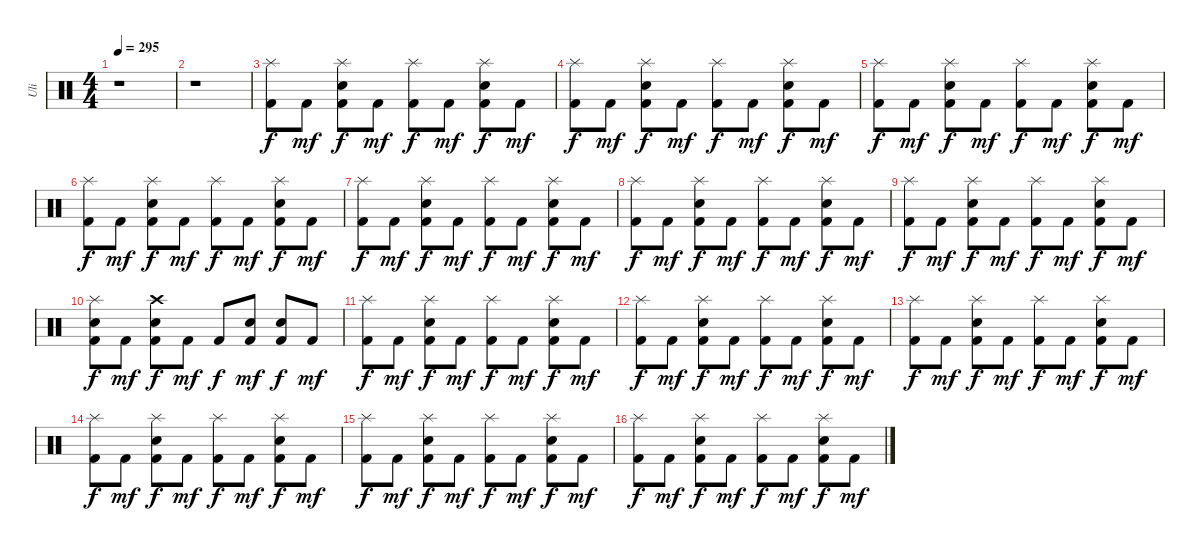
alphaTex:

\track ("Uli" "Uli") {instrument percussion}
\staff {score}
\articulation defaults
\ts (4 4)
\tempo 295
\clef neutral
\ks c
r.1{dy f} |
r.1 |
("Splash (hit)" "Kick (hit) 2").8 "Kick (hit) 2".8{dy mf volume 16} ("Splash (hit)" "Electric Snare (hit)" "Kick (hit) 2").8{dy f} "Kick (hit) 2".8{dy mf} ("Splash (hit)" "Kick (hit) 2").8{dy f} "Kick (hit) 2".8{dy mf} ("Splash (hit)" "Electric Snare (hit)" "Kick (hit) 2").8{dy f} "Kick (hit) 2".8{dy mf} |
("Splash (hit)" "Kick (hit) 2").8{dy f} "Kick (hit) 2".8{dy mf volume 16} ("Splash (hit)" "Electric Snare (hit)" "Kick (hit) 2").8{dy f} "Kick (hit) 2".8{dy mf} ("Splash (hit)" "Kick (hit) 2").8{dy f} "Kick (hit) 2".8{dy mf} ("Splash (hit)" "Electric Snare (hit)" "Kick (hit) 2").8{dy f} "Kick (hit) 2".8{dy mf} |
("Splash (hit)" "Kick (hit) 2").8{dy f} "Kick (hit) 2".8{dy mf volume 16} ("Splash (hit)" "Electric Snare (hit)" "Kick (hit) 2").8{dy f} "Kick (hit) 2".8{dy mf} ("Splash (hit)" "Kick (hit) 2").8{dy f} "Kick (hit) 2".8{dy mf} ("Splash (hit)" "Electric Snare (hit)" "Kick (hit) 2").8{dy f} "Kick (hit) 2".8{dy mf} |
("Splash (hit)" "Kick (hit) 2").8{dy f} "Kick (hit) 2".8{dy mf volume 16} ("Splash (hit)" "Electric Snare (hit)" "Kick (hit) 2").8{dy f} "Kick (hit) 2".8{dy mf} ("Splash (hit)" "Kick (hit) 2").8{dy f} "Kick (hit) 2".8{dy mf} ("Splash (hit)" "Electric Snare (hit)" "Kick (hit) 2").8{dy f} "Kick (hit) 2".8{dy mf} |
("Splash (hit)" "Kick (hit) 2").8{dy f} "Kick (hit) 2".8{dy mf volume 16} ("Splash (hit)" "Electric Snare (hit)" "Kick (hit) 2").8{dy f} "Kick (hit) 2".8{dy mf} ("Splash (hit)" "Kick (hit) 2").8{dy f} "Kick (hit) 2".8{dy mf} ("Splash (hit)" "Electric Snare (hit)" "Kick (hit) 2").8{dy f} "Kick (hit) 2".8{dy mf} |
("Splash (hit)" "Kick (hit) 2").8{dy f} "Kick (hit) 2".8{dy mf volume 16} ("Splash (hit)" "Electric Snare (hit)" "Kick (hit) 2").8{dy f} "Kick (hit) 2".8{dy mf} ("Splash (hit)" "Kick (hit) 2").8{dy f} "Kick (hit) 2".8{dy mf} ("Splash (hit)" "Electric Snare (hit)" "Kick (hit) 2").8{dy f} "Kick (hit) 2".8{dy mf} |
("Splash (hit)" "Kick (hit) 2").8{dy f} "Kick (hit) 2".8{dy mf volume 16} ("Splash (hit)" "Electric Snare (hit)" "Kick (hit) 2").8{dy f} "Kick (hit) 2".8{dy mf} ("Splash (hit)" "Kick (hit) 2").8{dy f} "Kick (hit) 2".8{dy mf} ("Splash (hit)" "Electric Snare (hit)" "Kick (hit) 2").8{dy f} "Kick (hit) 2".8{dy mf} |
("Splash (hit)" "Electric Snare (hit)" "Kick (hit) 2").8{dy f} "Kick (hit) 2".8{dy mf volume 16} ("Crash high (hit)" "Electric Snare (hit)" "Kick (hit) 2").8{dy f} "Kick (hit) 2".8{dy mf} "Kick (hit) 2".8{dy f} ("Electric Snare (hit)" "Kick (hit) 2").8{dy mf} ("Electric Snare (hit)" "Kick (hit) 2").8{dy f} "Kick (hit) 2".8{dy mf} |
("Splash (hit)" "Kick (hit) 2").8{dy f} "Kick (hit) 2".8{dy mf volume 16} ("Splash (hit)" "Electric Snare (hit)" "Kick (hit) 2").8{dy f} "Kick (hit) 2".8{dy mf} ("Splash (hit)" "Kick (hit) 2").8{dy f} "Kick (hit) 2".8{dy mf} ("Splash (hit)" "Electric Snare (hit)" "Kick (hit) 2").8{dy f} "Kick (hit) 2".8{dy mf} |
("Splash (hit)" "Kick (hit) 2").8{dy f} "Kick (hit) 2".8{dy mf volume 16} ("Splash (hit)" "Electric Snare (hit)" "Kick (hit) 2").8{dy f} "Kick (hit) 2".8{dy mf} ("Splash (hit)" "Kick (hit) 2").8{dy f} "Kick (hit) 2".8{dy mf} ("Splash (hit)" "Electric Snare (hit)" "Kick (hit) 2").8{dy f} "Kick (hit) 2".8{dy mf} |
("Splash (hit)" "Kick (hit) 2").8{dy f} "Kick (hit) 2".8{dy mf volume 16} ("Splash (hit)" "Electric Snare (hit)" "Kick (hit) 2").8{dy f} "Kick (hit) 2".8{dy mf} ("Splash (hit)" "Kick (hit) 2").8{dy f} "Kick (hit) 2".8{dy mf} ("Splash (hit)" "Electric Snare (hit)" "Kick (hit) 2").8{dy f} "Kick (hit) 2".8{dy mf} |
("Splash (hit)" "Kick (hit) 2").8{dy f} "Kick (hit) 2".8{dy mf volume 16} ("Splash (hit)" "Electric Snare (hit)" "Kick (hit) 2").8{dy f} "Kick (hit) 2".8{dy mf} ("Splash (hit)" "Kick (hit) 2").8{dy f} "Kick (hit) 2".8{dy mf} ("Splash (hit)" "Electric Snare (hit)" "Kick (hit) 2").8{dy f} "Kick (hit) 2".8{dy mf} |
("Splash (hit)" "Kick (hit) 2").8{dy f} "Kick (hit) 2".8{dy mf volume 16} ("Splash (hit)" "Electric Snare (hit)" "Kick (hit) 2").8{dy f} "Kick (hit) 2".8{dy mf} ("Splash (hit)" "Kick (hit) 2").8{dy f} "Kick (hit) 2".8{dy mf} ("Splash (hit)" "Electric Snare (hit)" "Kick (hit) 2").8{dy f} "Kick (hit) 2".8{dy mf} |
("Splash (hit)" "Kick (hit) 2").8{dy f} "Kick (hit) 2".8{dy mf volume 16} ("Splash (hit)" "Electric Snare (hit)" "Kick (hit) 2").8{dy f} "Kick (hit) 2".8{dy mf} ("Splash (hit)" "Kick (hit) 2").8{dy f} "Kick (hit) 2".8{dy mf} ("Splash (hit)" "Electric Snare (hit)" "Kick (hit) 2").8{dy f} "Kick (hit) 2".8{dy mf}
